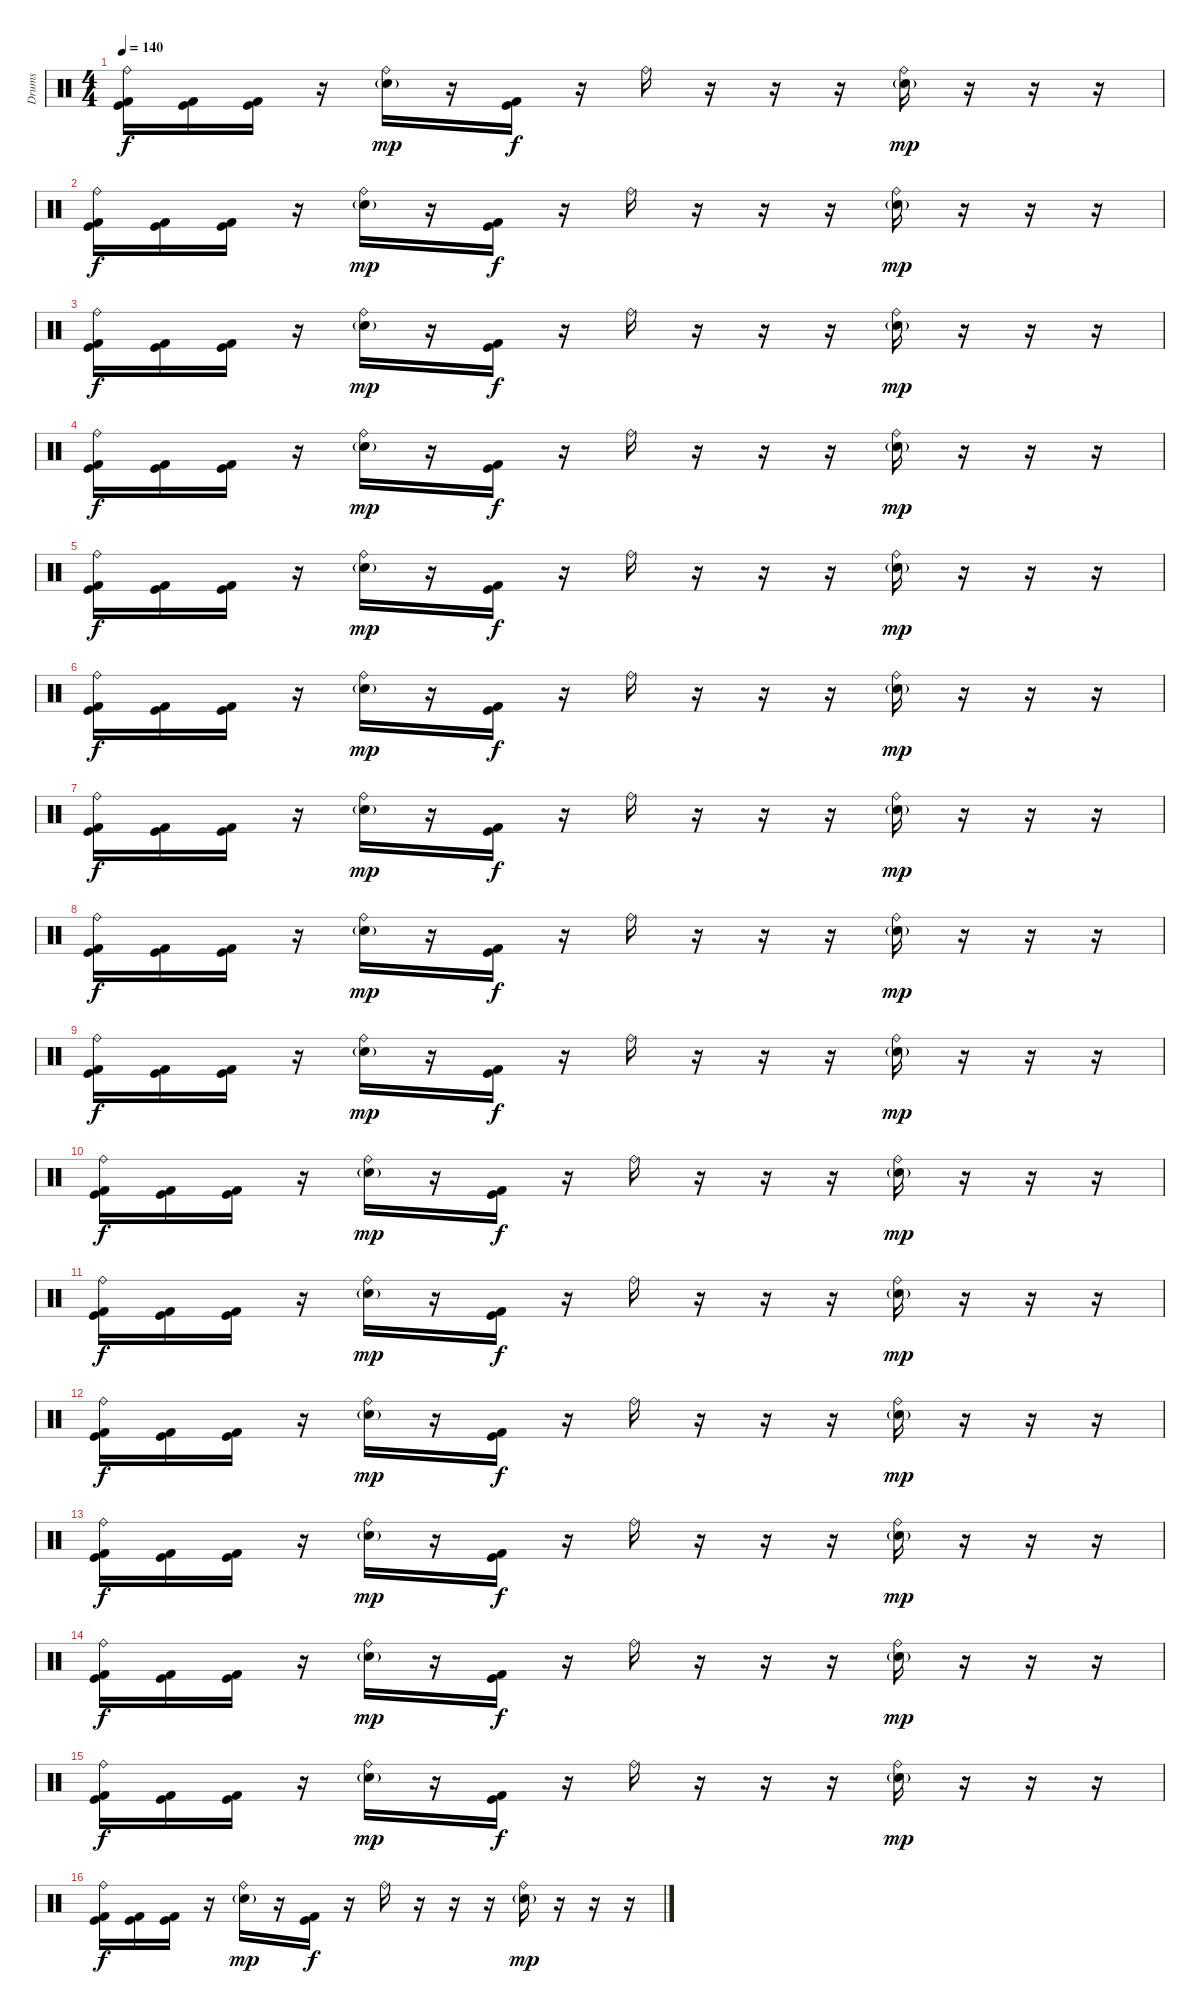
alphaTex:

\track ("Drums" "Drums") {instrument percussion}
\staff {score}
\articulation defaults
\ts (4 4)
\tempo 140
\clef neutral
\ks c
("Ride (bell)" "Kick (hit)" "Kick (hit) 2").16{dy f} ("Kick (hit)" "Kick (hit) 2").16 ("Kick (hit)" "Kick (hit) 2").16 r.16 ("Ride (bell)" "Electric Snare (hit)"{g}).16{dy mp} r.16 ("Kick (hit)" "Kick (hit) 2").16{dy f} r.16 "Ride (bell)".16 r.16 r.16 r.16 ("Ride (bell)" "Electric Snare (hit)"{g}).16{dy mp} r.16 r.16 r.16 |
("Ride (bell)" "Kick (hit)" "Kick (hit) 2").16{dy f} ("Kick (hit)" "Kick (hit) 2").16 ("Kick (hit)" "Kick (hit) 2").16 r.16 ("Ride (bell)" "Electric Snare (hit)"{g}).16{dy mp} r.16 ("Kick (hit)" "Kick (hit) 2").16{dy f} r.16 "Ride (bell)".16 r.16 r.16 r.16 ("Ride (bell)" "Electric Snare (hit)"{g}).16{dy mp} r.16 r.16 r.16 |
("Ride (bell)" "Kick (hit)" "Kick (hit) 2").16{dy f} ("Kick (hit)" "Kick (hit) 2").16 ("Kick (hit)" "Kick (hit) 2").16 r.16 ("Ride (bell)" "Electric Snare (hit)"{g}).16{dy mp} r.16 ("Kick (hit)" "Kick (hit) 2").16{dy f} r.16 "Ride (bell)".16 r.16 r.16 r.16 ("Ride (bell)" "Electric Snare (hit)"{g}).16{dy mp} r.16 r.16 r.16 |
("Ride (bell)" "Kick (hit)" "Kick (hit) 2").16{dy f} ("Kick (hit)" "Kick (hit) 2").16 ("Kick (hit)" "Kick (hit) 2").16 r.16 ("Ride (bell)" "Electric Snare (hit)"{g}).16{dy mp} r.16 ("Kick (hit)" "Kick (hit) 2").16{dy f} r.16 "Ride (bell)".16 r.16 r.16 r.16 ("Ride (bell)" "Electric Snare (hit)"{g}).16{dy mp} r.16 r.16 r.16 |
("Ride (bell)" "Kick (hit)" "Kick (hit) 2").16{dy f} ("Kick (hit)" "Kick (hit) 2").16 ("Kick (hit)" "Kick (hit) 2").16 r.16 ("Ride (bell)" "Electric Snare (hit)"{g}).16{dy mp} r.16 ("Kick (hit)" "Kick (hit) 2").16{dy f} r.16 "Ride (bell)".16 r.16 r.16 r.16 ("Ride (bell)" "Electric Snare (hit)"{g}).16{dy mp} r.16 r.16 r.16 |
("Ride (bell)" "Kick (hit)" "Kick (hit) 2").16{dy f} ("Kick (hit)" "Kick (hit) 2").16 ("Kick (hit)" "Kick (hit) 2").16 r.16 ("Ride (bell)" "Electric Snare (hit)"{g}).16{dy mp} r.16 ("Kick (hit)" "Kick (hit) 2").16{dy f} r.16 "Ride (bell)".16 r.16 r.16 r.16 ("Ride (bell)" "Electric Snare (hit)"{g}).16{dy mp} r.16 r.16 r.16 |
("Ride (bell)" "Kick (hit)" "Kick (hit) 2").16{dy f} ("Kick (hit)" "Kick (hit) 2").16 ("Kick (hit)" "Kick (hit) 2").16 r.16 ("Ride (bell)" "Electric Snare (hit)"{g}).16{dy mp} r.16 ("Kick (hit)" "Kick (hit) 2").16{dy f} r.16 "Ride (bell)".16 r.16 r.16 r.16 ("Ride (bell)" "Electric Snare (hit)"{g}).16{dy mp} r.16 r.16 r.16 |
("Ride (bell)" "Kick (hit)" "Kick (hit) 2").16{dy f} ("Kick (hit)" "Kick (hit) 2").16 ("Kick (hit)" "Kick (hit) 2").16 r.16 ("Ride (bell)" "Electric Snare (hit)"{g}).16{dy mp} r.16 ("Kick (hit)" "Kick (hit) 2").16{dy f} r.16 "Ride (bell)".16 r.16 r.16 r.16 ("Ride (bell)" "Electric Snare (hit)"{g}).16{dy mp} r.16 r.16 r.16 |
("Ride (bell)" "Kick (hit)" "Kick (hit) 2").16{dy f} ("Kick (hit)" "Kick (hit) 2").16 ("Kick (hit)" "Kick (hit) 2").16 r.16 ("Ride (bell)" "Electric Snare (hit)"{g}).16{dy mp} r.16 ("Kick (hit)" "Kick (hit) 2").16{dy f} r.16 "Ride (bell)".16 r.16 r.16 r.16 ("Ride (bell)" "Electric Snare (hit)"{g}).16{dy mp} r.16 r.16 r.16 |
("Ride (bell)" "Kick (hit)" "Kick (hit) 2").16{dy f} ("Kick (hit)" "Kick (hit) 2").16 ("Kick (hit)" "Kick (hit) 2").16 r.16 ("Ride (bell)" "Electric Snare (hit)"{g}).16{dy mp} r.16 ("Kick (hit)" "Kick (hit) 2").16{dy f} r.16 "Ride (bell)".16 r.16 r.16 r.16 ("Ride (bell)" "Electric Snare (hit)"{g}).16{dy mp} r.16 r.16 r.16 |
("Ride (bell)" "Kick (hit)" "Kick (hit) 2").16{dy f} ("Kick (hit)" "Kick (hit) 2").16 ("Kick (hit)" "Kick (hit) 2").16 r.16 ("Ride (bell)" "Electric Snare (hit)"{g}).16{dy mp} r.16 ("Kick (hit)" "Kick (hit) 2").16{dy f} r.16 "Ride (bell)".16 r.16 r.16 r.16 ("Ride (bell)" "Electric Snare (hit)"{g}).16{dy mp} r.16 r.16 r.16 |
("Ride (bell)" "Kick (hit)" "Kick (hit) 2").16{dy f} ("Kick (hit)" "Kick (hit) 2").16 ("Kick (hit)" "Kick (hit) 2").16 r.16 ("Ride (bell)" "Electric Snare (hit)"{g}).16{dy mp} r.16 ("Kick (hit)" "Kick (hit) 2").16{dy f} r.16 "Ride (bell)".16 r.16 r.16 r.16 ("Ride (bell)" "Electric Snare (hit)"{g}).16{dy mp} r.16 r.16 r.16 |
("Ride (bell)" "Kick (hit)" "Kick (hit) 2").16{dy f} ("Kick (hit)" "Kick (hit) 2").16 ("Kick (hit)" "Kick (hit) 2").16 r.16 ("Ride (bell)" "Electric Snare (hit)"{g}).16{dy mp} r.16 ("Kick (hit)" "Kick (hit) 2").16{dy f} r.16 "Ride (bell)".16 r.16 r.16 r.16 ("Ride (bell)" "Electric Snare (hit)"{g}).16{dy mp} r.16 r.16 r.16 |
("Ride (bell)" "Kick (hit)" "Kick (hit) 2").16{dy f} ("Kick (hit)" "Kick (hit) 2").16 ("Kick (hit)" "Kick (hit) 2").16 r.16 ("Ride (bell)" "Electric Snare (hit)"{g}).16{dy mp} r.16 ("Kick (hit)" "Kick (hit) 2").16{dy f} r.16 "Ride (bell)".16 r.16 r.16 r.16 ("Ride (bell)" "Electric Snare (hit)"{g}).16{dy mp} r.16 r.16 r.16 |
("Ride (bell)" "Kick (hit)" "Kick (hit) 2").16{dy f} ("Kick (hit)" "Kick (hit) 2").16 ("Kick (hit)" "Kick (hit) 2").16 r.16 ("Ride (bell)" "Electric Snare (hit)"{g}).16{dy mp} r.16 ("Kick (hit)" "Kick (hit) 2").16{dy f} r.16 "Ride (bell)".16 r.16 r.16 r.16 ("Ride (bell)" "Electric Snare (hit)"{g}).16{dy mp} r.16 r.16 r.16 |
("Ride (bell)" "Kick (hit)" "Kick (hit) 2").16{dy f} ("Kick (hit)" "Kick (hit) 2").16 ("Kick (hit)" "Kick (hit) 2").16 r.16 ("Ride (bell)" "Electric Snare (hit)"{g}).16{dy mp} r.16 ("Kick (hit)" "Kick (hit) 2").16{dy f} r.16 "Ride (bell)".16 r.16 r.16 r.16 ("Ride (bell)" "Electric Snare (hit)"{g}).16{dy mp} r.16 r.16 r.16
